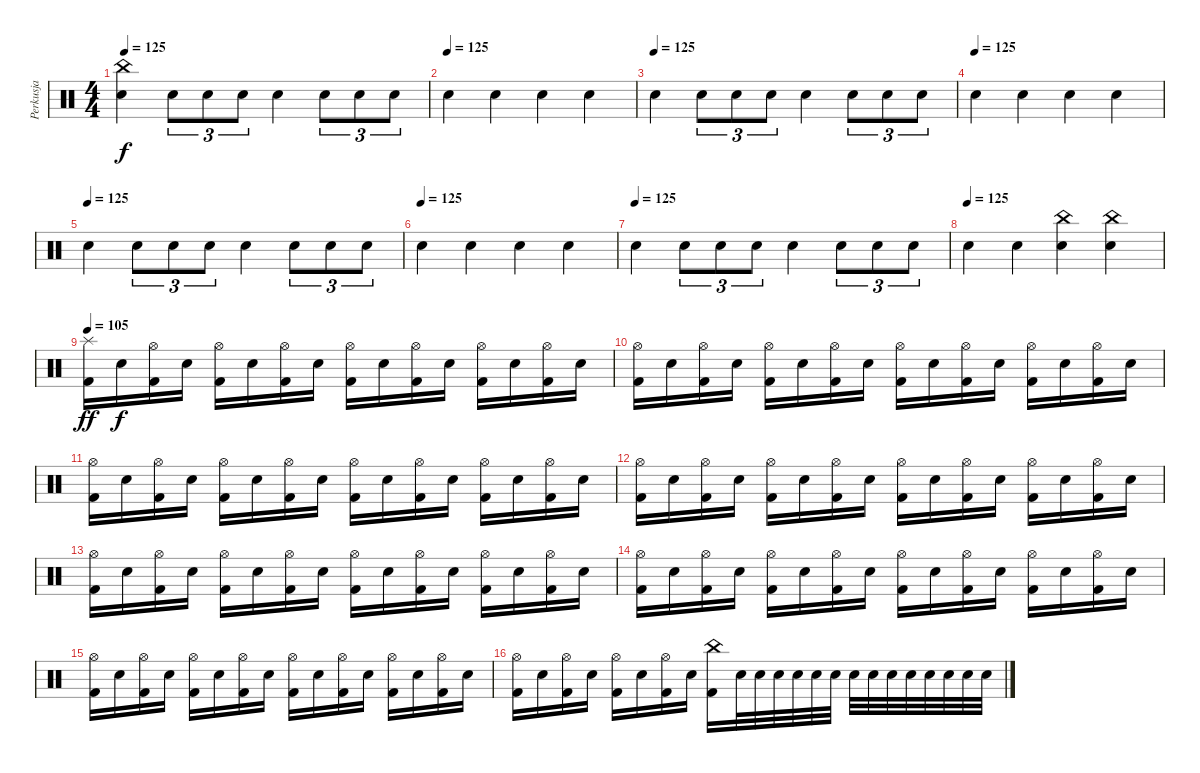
\track ("Perkusja" "Perkusja") {instrument percussion}
\staff {score}
\articulation defaults
\ts (4 4)
\tempo 125
\clef neutral
\ks c
("China (hit)" "Snare (hit) 2").4{dy f} "Snare (hit) 2".8{tu (3 2)} "Snare (hit) 2".8{tu (3 2)} "Snare (hit) 2".8{tu (3 2)} "Snare (hit) 2".4 "Snare (hit) 2".8{tu (3 2)} "Snare (hit) 2".8{tu (3 2)} "Snare (hit) 2".8{tu (3 2)} |
\tempo (125)
"Snare (hit) 2".4 "Snare (hit) 2".4 "Snare (hit) 2".4 "Snare (hit) 2".4 |
\tempo (125)
"Snare (hit) 2".4 "Snare (hit) 2".8{tu (3 2)} "Snare (hit) 2".8{tu (3 2)} "Snare (hit) 2".8{tu (3 2)} "Snare (hit) 2".4 "Snare (hit) 2".8{tu (3 2)} "Snare (hit) 2".8{tu (3 2)} "Snare (hit) 2".8{tu (3 2)} |
\tempo (125)
"Snare (hit) 2".4 "Snare (hit) 2".4 "Snare (hit) 2".4 "Snare (hit) 2".4 |
\tempo (125)
"Snare (hit) 2".4 "Snare (hit) 2".8{tu (3 2)} "Snare (hit) 2".8{tu (3 2)} "Snare (hit) 2".8{tu (3 2)} "Snare (hit) 2".4 "Snare (hit) 2".8{tu (3 2)} "Snare (hit) 2".8{tu (3 2)} "Snare (hit) 2".8{tu (3 2)} |
\tempo (125)
"Snare (hit) 2".4 "Snare (hit) 2".4 "Snare (hit) 2".4 "Snare (hit) 2".4 |
\tempo (125)
"Snare (hit) 2".4 "Snare (hit) 2".8{tu (3 2)} "Snare (hit) 2".8{tu (3 2)} "Snare (hit) 2".8{tu (3 2)} "Snare (hit) 2".4 "Snare (hit) 2".8{tu (3 2)} "Snare (hit) 2".8{tu (3 2)} "Snare (hit) 2".8{tu (3 2)} |
\tempo (125)
"Snare (hit) 2".4 "Snare (hit) 2".4 ("China (hit)" "Snare (hit) 2").4 ("China (hit)" "Snare (hit) 2").4 |
\tempo 105
("Splash (hit)" "Kick (hit) 2").16{dy ff} "Snare (hit) 2".16{dy f} ("Hi-Hat (open)" "Kick (hit) 2").16 "Snare (hit) 2".16 ("Hi-Hat (open)" "Kick (hit) 2").16 "Snare (hit) 2".16 ("Hi-Hat (open)" "Kick (hit) 2").16 "Snare (hit) 2".16 ("Hi-Hat (open)" "Kick (hit) 2").16 "Snare (hit) 2".16 ("Hi-Hat (open)" "Kick (hit) 2").16 "Snare (hit) 2".16 ("Hi-Hat (open)" "Kick (hit) 2").16 "Snare (hit) 2".16 ("Hi-Hat (open)" "Kick (hit) 2").16 "Snare (hit) 2".16 |
("Hi-Hat (open)" "Kick (hit) 2").16 "Snare (hit) 2".16 ("Hi-Hat (open)" "Kick (hit) 2").16 "Snare (hit) 2".16 ("Hi-Hat (open)" "Kick (hit) 2").16 "Snare (hit) 2".16 ("Hi-Hat (open)" "Kick (hit) 2").16 "Snare (hit) 2".16 ("Hi-Hat (open)" "Kick (hit) 2").16 "Snare (hit) 2".16 ("Hi-Hat (open)" "Kick (hit) 2").16 "Snare (hit) 2".16 ("Hi-Hat (open)" "Kick (hit) 2").16 "Snare (hit) 2".16 ("Hi-Hat (open)" "Kick (hit) 2").16 "Snare (hit) 2".16 |
("Hi-Hat (open)" "Kick (hit) 2").16 "Snare (hit) 2".16 ("Hi-Hat (open)" "Kick (hit) 2").16 "Snare (hit) 2".16 ("Hi-Hat (open)" "Kick (hit) 2").16 "Snare (hit) 2".16 ("Hi-Hat (open)" "Kick (hit) 2").16 "Snare (hit) 2".16 ("Hi-Hat (open)" "Kick (hit) 2").16 "Snare (hit) 2".16 ("Hi-Hat (open)" "Kick (hit) 2").16 "Snare (hit) 2".16 ("Hi-Hat (open)" "Kick (hit) 2").16 "Snare (hit) 2".16 ("Hi-Hat (open)" "Kick (hit) 2").16 "Snare (hit) 2".16 |
("Hi-Hat (open)" "Kick (hit) 2").16 "Snare (hit) 2".16 ("Hi-Hat (open)" "Kick (hit) 2").16 "Snare (hit) 2".16 ("Hi-Hat (open)" "Kick (hit) 2").16 "Snare (hit) 2".16 ("Hi-Hat (open)" "Kick (hit) 2").16 "Snare (hit) 2".16 ("Hi-Hat (open)" "Kick (hit) 2").16 "Snare (hit) 2".16 ("Hi-Hat (open)" "Kick (hit) 2").16 "Snare (hit) 2".16 ("Hi-Hat (open)" "Kick (hit) 2").16 "Snare (hit) 2".16 ("Hi-Hat (open)" "Kick (hit) 2").16 "Snare (hit) 2".16 |
("Hi-Hat (open)" "Kick (hit) 2").16 "Snare (hit) 2".16 ("Hi-Hat (open)" "Kick (hit) 2").16 "Snare (hit) 2".16 ("Hi-Hat (open)" "Kick (hit) 2").16 "Snare (hit) 2".16 ("Hi-Hat (open)" "Kick (hit) 2").16 "Snare (hit) 2".16 ("Hi-Hat (open)" "Kick (hit) 2").16 "Snare (hit) 2".16 ("Hi-Hat (open)" "Kick (hit) 2").16 "Snare (hit) 2".16 ("Hi-Hat (open)" "Kick (hit) 2").16 "Snare (hit) 2".16 ("Hi-Hat (open)" "Kick (hit) 2").16 "Snare (hit) 2".16 |
("Hi-Hat (open)" "Kick (hit) 2").16 "Snare (hit) 2".16 ("Hi-Hat (open)" "Kick (hit) 2").16 "Snare (hit) 2".16 ("Hi-Hat (open)" "Kick (hit) 2").16 "Snare (hit) 2".16 ("Hi-Hat (open)" "Kick (hit) 2").16 "Snare (hit) 2".16 ("Hi-Hat (open)" "Kick (hit) 2").16 "Snare (hit) 2".16 ("Hi-Hat (open)" "Kick (hit) 2").16 "Snare (hit) 2".16 ("Hi-Hat (open)" "Kick (hit) 2").16 "Snare (hit) 2".16 ("Hi-Hat (open)" "Kick (hit) 2").16 "Snare (hit) 2".16 |
("Hi-Hat (open)" "Kick (hit) 2").16 "Snare (hit) 2".16 ("Hi-Hat (open)" "Kick (hit) 2").16 "Snare (hit) 2".16 ("Hi-Hat (open)" "Kick (hit) 2").16 "Snare (hit) 2".16 ("Hi-Hat (open)" "Kick (hit) 2").16 "Snare (hit) 2".16 ("Hi-Hat (open)" "Kick (hit) 2").16 "Snare (hit) 2".16 ("Hi-Hat (open)" "Kick (hit) 2").16 "Snare (hit) 2".16 ("Hi-Hat (open)" "Kick (hit) 2").16 "Snare (hit) 2".16 ("Hi-Hat (open)" "Kick (hit) 2").16 "Snare (hit) 2".16 |
("Hi-Hat (open)" "Kick (hit) 2").16 "Snare (hit) 2".16 ("Hi-Hat (open)" "Kick (hit) 2").16 "Snare (hit) 2".16 ("Hi-Hat (open)" "Kick (hit) 2").16 "Snare (hit) 2".16 ("Hi-Hat (open)" "Kick (hit) 2").16 "Snare (hit) 2".16 ("China (hit)" "Kick (hit) 2").16 "Snare (hit) 2".32 "Snare (hit) 2".32 "Snare (hit) 2".32 "Snare (hit) 2".32 "Snare (hit) 2".32 "Snare (hit) 2".32 "Snare (hit) 2".32 "Snare (hit) 2".32 "Snare (hit) 2".32 "Snare (hit) 2".32 "Snare (hit) 2".32 "Snare (hit) 2".32 "Snare (hit) 2".32 "Snare (hit) 2".32
